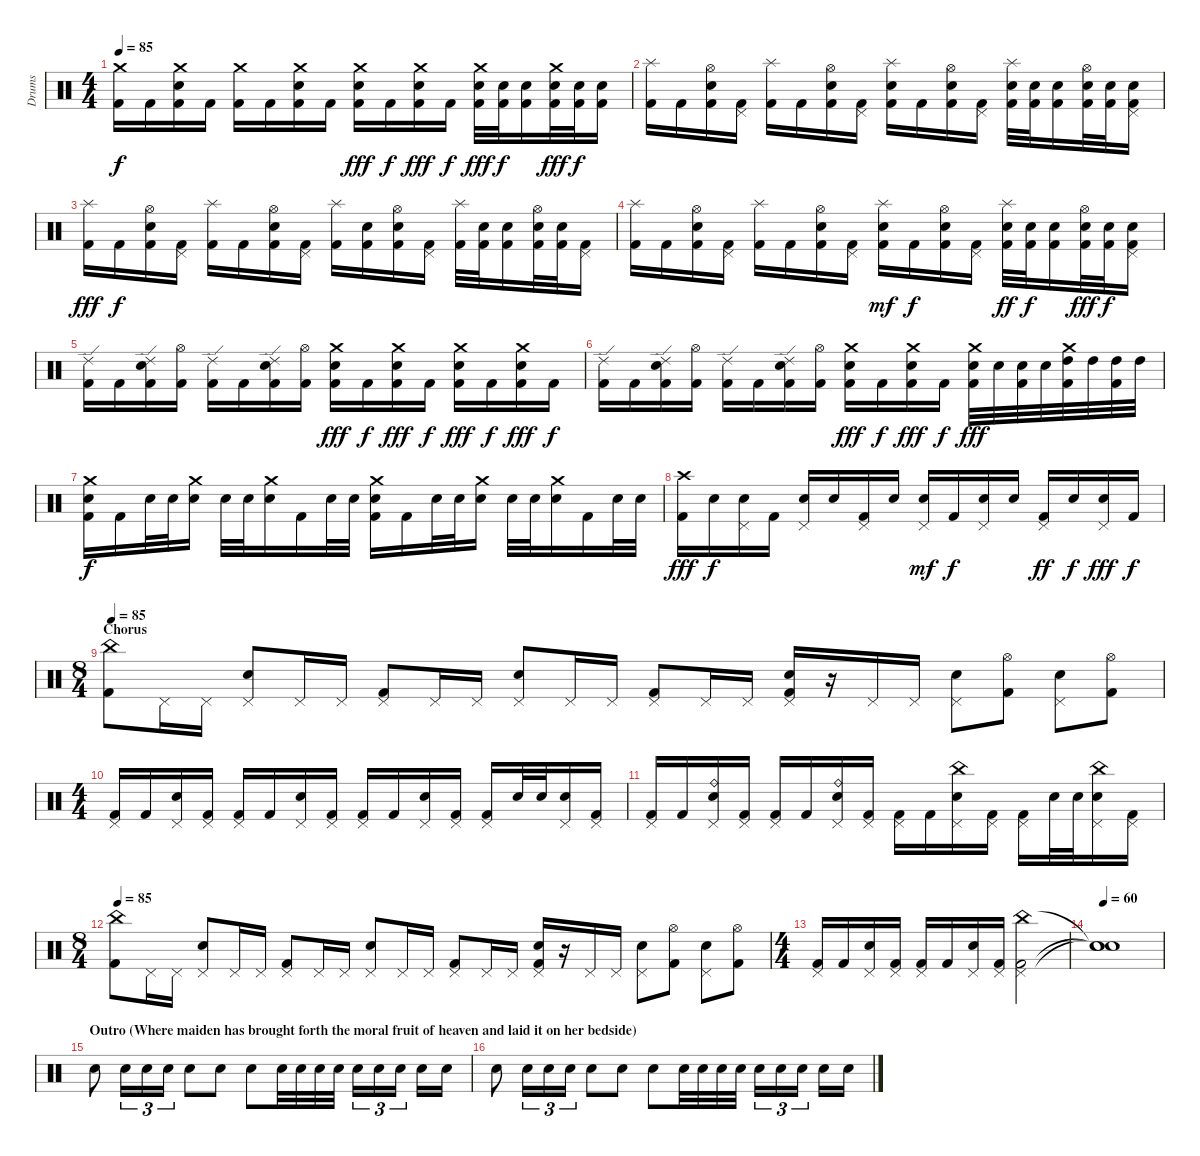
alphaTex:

\track ("Drums" "Drums") {instrument percussion}
\staff {score}
\articulation defaults
\ts (4 4)
\tempo 85
\clef neutral
\ks c
("Crash medium (hit)" "Kick (hit) 2").16{dy f} "Kick (hit) 2".16 ("Crash medium (hit)" "Electric Snare (hit)" "Kick (hit) 2").16 "Kick (hit) 2".16 ("Crash medium (hit)" "Kick (hit) 2").16 "Kick (hit) 2".16 ("Crash medium (hit)" "Electric Snare (hit)" "Kick (hit) 2").16 "Kick (hit) 2".16 ("Crash medium (hit)" "Electric Snare (hit)" "Kick (hit) 2").16{dy fff} "Kick (hit) 2".16{dy f} ("Crash medium (hit)" "Electric Snare (hit)" "Kick (hit) 2").16{dy fff} "Kick (hit) 2".16{dy f} ("Crash medium (hit)" "Electric Snare (hit)" "Kick (hit) 2").32{dy fff} ("Electric Snare (hit)" "Kick (hit) 2").32{dy f} ("Electric Snare (hit)" "Kick (hit) 2").16 ("Crash medium (hit)" "Electric Snare (hit)" "Kick (hit) 2").32{dy fff} ("Electric Snare (hit)" "Kick (hit) 2").32{dy f} ("Electric Snare (hit)" "Kick (hit) 2").16 |
("Splash (hit)" "Kick (hit) 2").16 "Kick (hit) 2".16 ("Hi-Hat (open)" "Electric Snare (hit)" "Kick (hit) 2").16 ("Pedal Hi-Hat (hit)" "Kick (hit) 2").16 ("Splash (hit)" "Kick (hit) 2").16 "Kick (hit) 2".16 ("Hi-Hat (open)" "Electric Snare (hit)" "Kick (hit) 2").16 ("Pedal Hi-Hat (hit)" "Kick (hit) 2").16 ("Splash (hit)" "Electric Snare (hit)" "Kick (hit) 2").16 "Kick (hit) 2".16 ("Hi-Hat (open)" "Electric Snare (hit)" "Kick (hit) 2").16 ("Pedal Hi-Hat (hit)" "Kick (hit) 2").16 ("Splash (hit)" "Electric Snare (hit)" "Kick (hit) 2").32 ("Electric Snare (hit)" "Kick (hit) 2").32 ("Electric Snare (hit)" "Kick (hit) 2").16 ("Hi-Hat (open)" "Electric Snare (hit)" "Kick (hit) 2").32 ("Electric Snare (hit)" "Kick (hit) 2").32 ("Pedal Hi-Hat (hit)" "Electric Snare (hit)" "Kick (hit) 2").16 |
("Splash (hit)" "Kick (hit) 2").16{dy fff} "Kick (hit) 2".16{dy f} ("Hi-Hat (open)" "Electric Snare (hit)" "Kick (hit) 2").16 ("Pedal Hi-Hat (hit)" "Kick (hit) 2").16 ("Splash (hit)" "Kick (hit) 2").16 "Kick (hit) 2".16 ("Hi-Hat (open)" "Electric Snare (hit)" "Kick (hit) 2").16 ("Pedal Hi-Hat (hit)" "Kick (hit) 2").16 ("Splash (hit)" "Kick (hit) 2").16 ("Electric Snare (hit)" "Kick (hit) 2").16 ("Hi-Hat (open)" "Electric Snare (hit)" "Kick (hit) 2").16 ("Pedal Hi-Hat (hit)" "Kick (hit) 2").16 ("Splash (hit)" "Kick (hit) 2").32 ("Electric Snare (hit)" "Kick (hit) 2").32 ("Electric Snare (hit)" "Kick (hit) 2").16 ("Hi-Hat (open)" "Electric Snare (hit)" "Kick (hit) 2").32 ("Electric Snare (hit)" "Kick (hit) 2").32 ("Pedal Hi-Hat (hit)" "Kick (hit) 2").16 |
("Splash (hit)" "Kick (hit) 2").16 "Kick (hit) 2".16 ("Hi-Hat (open)" "Electric Snare (hit)" "Kick (hit) 2").16 ("Pedal Hi-Hat (hit)" "Kick (hit) 2").16 ("Splash (hit)" "Kick (hit) 2").16 "Kick (hit) 2".16 ("Hi-Hat (open)" "Electric Snare (hit)" "Kick (hit) 2").16 ("Pedal Hi-Hat (hit)" "Kick (hit) 2").16 ("Splash (hit)" "Electric Snare (hit)" "Kick (hit) 2").16{dy mf} "Kick (hit) 2".16{dy f} ("Hi-Hat (open)" "Electric Snare (hit)" "Kick (hit) 2").16 ("Pedal Hi-Hat (hit)" "Kick (hit) 2").16 ("Splash (hit)" "Electric Snare (hit)" "Kick (hit) 2").32{dy ff} ("Electric Snare (hit)" "Kick (hit) 2").32{dy f} ("Electric Snare (hit)" "Kick (hit) 2").16 ("Hi-Hat (open)" "Electric Snare (hit)" "Kick (hit) 2").32{dy fff} ("Electric Snare (hit)" "Kick (hit) 2").32{dy f} ("Pedal Hi-Hat (hit)" "Electric Snare (hit)" "Kick (hit) 2").16 |
("Ride (edge) 2" "Kick (hit) 2").16 "Kick (hit) 2".16 ("Ride (edge) 2" "Electric Snare (hit)" "Kick (hit) 2").16 ("Hi-Hat (open)" "Kick (hit) 2").16 ("Ride (edge) 2" "Kick (hit) 2").16 "Kick (hit) 2".16 ("Ride (edge) 2" "Electric Snare (hit)" "Kick (hit) 2").16 ("Hi-Hat (open)" "Kick (hit) 2").16 ("Crash medium (hit)" "Electric Snare (hit)" "Kick (hit) 2").16{dy fff} "Kick (hit) 2".16{dy f} ("Crash medium (hit)" "Electric Snare (hit)" "Kick (hit) 2").16{dy fff} "Kick (hit) 2".16{dy f} ("Crash medium (hit)" "Electric Snare (hit)" "Kick (hit) 2").16{dy fff} "Kick (hit) 2".16{dy f} ("Crash medium (hit)" "Electric Snare (hit)" "Kick (hit) 2").16{dy fff} "Kick (hit) 2".16{dy f} |
("Ride (edge) 2" "Kick (hit) 2").16 "Kick (hit) 2".16 ("Ride (edge) 2" "Electric Snare (hit)" "Kick (hit) 2").16 ("Hi-Hat (open)" "Kick (hit) 2").16 ("Ride (edge) 2" "Kick (hit) 2").16 "Kick (hit) 2".16 ("Ride (edge) 2" "Electric Snare (hit)" "Kick (hit) 2").16 ("Hi-Hat (open)" "Kick (hit) 2").16 ("Crash medium (hit)" "Electric Snare (hit)" "Kick (hit) 2").16{dy fff} "Kick (hit) 2".16{dy f} ("Crash medium (hit)" "Electric Snare (hit)" "Kick (hit) 2").16{dy fff} "Kick (hit) 2".16{dy f} ("Crash medium (hit)" "Electric Snare (hit)" "Kick (hit) 2").32{dy fff} "Electric Snare (hit)".32 ("Electric Snare (hit)" "Kick (hit) 2").32 "Electric Snare (hit)".32 ("Crash medium (hit)" "High Tom (hit)" "Kick (hit) 2").32 "High Tom (hit)".32 ("High Tom (hit)" "Kick (hit) 2").32 "High Tom (hit)".32 |
("Crash medium (hit)" "Electric Snare (hit)" "Kick (hit) 2").16{dy f} "Kick (hit) 2".16 "Electric Snare (hit)".32 "Electric Snare (hit)".32 ("Crash medium (hit)" "Electric Snare (hit)").16 "Electric Snare (hit)".32 "Electric Snare (hit)".32 ("Crash medium (hit)" "Electric Snare (hit)").16 "Kick (hit) 2".16 "Electric Snare (hit)".32 "Electric Snare (hit)".32 ("Crash medium (hit)" "Electric Snare (hit)" "Kick (hit) 2").16 "Kick (hit) 2".16 "Electric Snare (hit)".32 "Electric Snare (hit)".32 ("Crash medium (hit)" "Electric Snare (hit)").16 "Electric Snare (hit)".32 "Electric Snare (hit)".32 ("Crash medium (hit)" "Electric Snare (hit)").16 "Kick (hit) 2".16 "Electric Snare (hit)".32 "Electric Snare (hit)".32 |
("Crash high (hit)" "Kick (hit) 2").16{dy fff} "Electric Snare (hit)".16{dy f} ("Pedal Hi-Hat (hit)" "Electric Snare (hit)").16 "Kick (hit) 2".16 ("Pedal Hi-Hat (hit)" "Electric Snare (hit)").16 "Electric Snare (hit)".16 ("Pedal Hi-Hat (hit)" "Kick (hit) 2").16 "Electric Snare (hit)".16 ("Pedal Hi-Hat (hit)" "Electric Snare (hit)").16{dy mf} "Kick (hit) 2".16{dy f} ("Pedal Hi-Hat (hit)" "Electric Snare (hit)").16 "Electric Snare (hit)".16 ("Pedal Hi-Hat (hit)" "Kick (hit) 2").16{dy ff} "Electric Snare (hit)".16{dy f} ("Pedal Hi-Hat (hit)" "Electric Snare (hit)").16{dy fff} "Kick (hit) 2".16{dy f} |
\ts (8 4)
\section ("" "Chorus")
\tempo 85
("China (hit)" "Kick (hit) 2").8 "Pedal Hi-Hat (hit)".16 "Pedal Hi-Hat (hit)".16 ("Pedal Hi-Hat (hit)" "Electric Snare (hit)").8 "Pedal Hi-Hat (hit)".16 "Pedal Hi-Hat (hit)".16 ("Pedal Hi-Hat (hit)" "Kick (hit) 2").8 "Pedal Hi-Hat (hit)".16 "Pedal Hi-Hat (hit)".16 ("Pedal Hi-Hat (hit)" "Electric Snare (hit)").8 "Pedal Hi-Hat (hit)".16 "Pedal Hi-Hat (hit)".16 ("Pedal Hi-Hat (hit)" "Kick (hit) 2").8 "Pedal Hi-Hat (hit)".16 "Pedal Hi-Hat (hit)".16 ("Pedal Hi-Hat (hit)" "Electric Snare (hit)" "Kick (hit) 2").16 r.16 "Pedal Hi-Hat (hit)".16 "Pedal Hi-Hat (hit)".16 ("Pedal Hi-Hat (hit)" "Electric Snare (hit)").8 ("Hi-Hat (open)" "Kick (hit) 2").8 ("Pedal Hi-Hat (hit)" "Electric Snare (hit)").8 ("Hi-Hat (open)" "Kick (hit) 2").8 |
\ts (4 4)
("Pedal Hi-Hat (hit)" "Kick (hit) 2").16 "Kick (hit) 2".16 ("Pedal Hi-Hat (hit)" "Electric Snare (hit)").16 ("Pedal Hi-Hat (hit)" "Kick (hit) 2").16 ("Pedal Hi-Hat (hit)" "Kick (hit) 2").16 "Kick (hit) 2".16 ("Pedal Hi-Hat (hit)" "Electric Snare (hit)").16 ("Pedal Hi-Hat (hit)" "Kick (hit) 2").16 ("Pedal Hi-Hat (hit)" "Kick (hit) 2").16 "Kick (hit) 2".16 ("Pedal Hi-Hat (hit)" "Electric Snare (hit)").16 ("Pedal Hi-Hat (hit)" "Kick (hit) 2").16 ("Pedal Hi-Hat (hit)" "Kick (hit) 2").16 "Electric Snare (hit)".32 "Electric Snare (hit)".32 ("Pedal Hi-Hat (hit)" "Electric Snare (hit)").16 ("Pedal Hi-Hat (hit)" "Kick (hit) 2").16 |
("Pedal Hi-Hat (hit)" "Kick (hit) 2").16 "Kick (hit) 2".16 ("Ride (bell)" "Pedal Hi-Hat (hit)" "Electric Snare (hit)").16 ("Pedal Hi-Hat (hit)" "Kick (hit) 2").16 ("Pedal Hi-Hat (hit)" "Kick (hit) 2").16 "Kick (hit) 2".16 ("Ride (bell)" "Pedal Hi-Hat (hit)" "Electric Snare (hit)").16 ("Pedal Hi-Hat (hit)" "Kick (hit) 2").16 ("Pedal Hi-Hat (hit)" "Kick (hit) 2").16 "Kick (hit) 2".16 ("China (hit)" "Pedal Hi-Hat (hit)" "Electric Snare (hit)").16 ("Pedal Hi-Hat (hit)" "Kick (hit) 2").16 ("Pedal Hi-Hat (hit)" "Kick (hit) 2").16 "Electric Snare (hit)".32 "Electric Snare (hit)".32 ("China (hit)" "Pedal Hi-Hat (hit)" "Electric Snare (hit)").16 ("Pedal Hi-Hat (hit)" "Kick (hit) 2").16 |
\ts (8 4)
\tempo 85
("China (hit)" "Kick (hit) 2").8 "Pedal Hi-Hat (hit)".16 "Pedal Hi-Hat (hit)".16 ("Pedal Hi-Hat (hit)" "Electric Snare (hit)").8 "Pedal Hi-Hat (hit)".16 "Pedal Hi-Hat (hit)".16 ("Pedal Hi-Hat (hit)" "Kick (hit) 2").8 "Pedal Hi-Hat (hit)".16 "Pedal Hi-Hat (hit)".16 ("Pedal Hi-Hat (hit)" "Electric Snare (hit)").8 "Pedal Hi-Hat (hit)".16 "Pedal Hi-Hat (hit)".16 ("Pedal Hi-Hat (hit)" "Kick (hit) 2").8 "Pedal Hi-Hat (hit)".16 "Pedal Hi-Hat (hit)".16 ("Pedal Hi-Hat (hit)" "Electric Snare (hit)" "Kick (hit) 2").16 r.16 "Pedal Hi-Hat (hit)".16 "Pedal Hi-Hat (hit)".16 ("Pedal Hi-Hat (hit)" "Electric Snare (hit)").8 ("Hi-Hat (open)" "Kick (hit) 2").8 ("Pedal Hi-Hat (hit)" "Electric Snare (hit)").8 ("Hi-Hat (open)" "Kick (hit) 2").8 |
\ts (4 4)
("Pedal Hi-Hat (hit)" "Kick (hit) 2").16 "Kick (hit) 2".16 ("Pedal Hi-Hat (hit)" "Electric Snare (hit)").16 ("Pedal Hi-Hat (hit)" "Kick (hit) 2").16 ("Pedal Hi-Hat (hit)" "Kick (hit) 2").16 "Kick (hit) 2".16 ("Pedal Hi-Hat (hit)" "Electric Snare (hit)").16 ("Pedal Hi-Hat (hit)" "Kick (hit) 2").16 ("China (hit)" "Pedal Hi-Hat (hit)" "Kick (hit) 2").2{volume 16} |
\tempo 60
("Snare (hit)"{t} "Snare (hit)"{t} "Snare (hit)"{t}).1 |
\section ("" "Outro (Where maiden has brought forth the moral fruit of heaven and laid it on her bedside) ")
"Electric Snare (hit)".8{volume 6} "Electric Snare (hit)".16{tu (3 2)} "Electric Snare (hit)".16{tu (3 2)} "Electric Snare (hit)".16{tu (3 2)} "Electric Snare (hit)".8 "Electric Snare (hit)".8 "Electric Snare (hit)".8 "Electric Snare (hit)".32 "Electric Snare (hit)".32 "Electric Snare (hit)".32 "Electric Snare (hit)".32 "Electric Snare (hit)".16{tu (3 2)} "Electric Snare (hit)".16{tu (3 2)} "Electric Snare (hit)".16{tu (3 2)} "Electric Snare (hit)".16 "Electric Snare (hit)".16 |
"Electric Snare (hit)".8{volume 16} "Electric Snare (hit)".16{tu (3 2)} "Electric Snare (hit)".16{tu (3 2)} "Electric Snare (hit)".16{tu (3 2)} "Electric Snare (hit)".8 "Electric Snare (hit)".8 "Electric Snare (hit)".8 "Electric Snare (hit)".32 "Electric Snare (hit)".32 "Electric Snare (hit)".32 "Electric Snare (hit)".32 "Electric Snare (hit)".16{tu (3 2)} "Electric Snare (hit)".16{tu (3 2)} "Electric Snare (hit)".16{tu (3 2)} "Electric Snare (hit)".16 "Electric Snare (hit)".16
